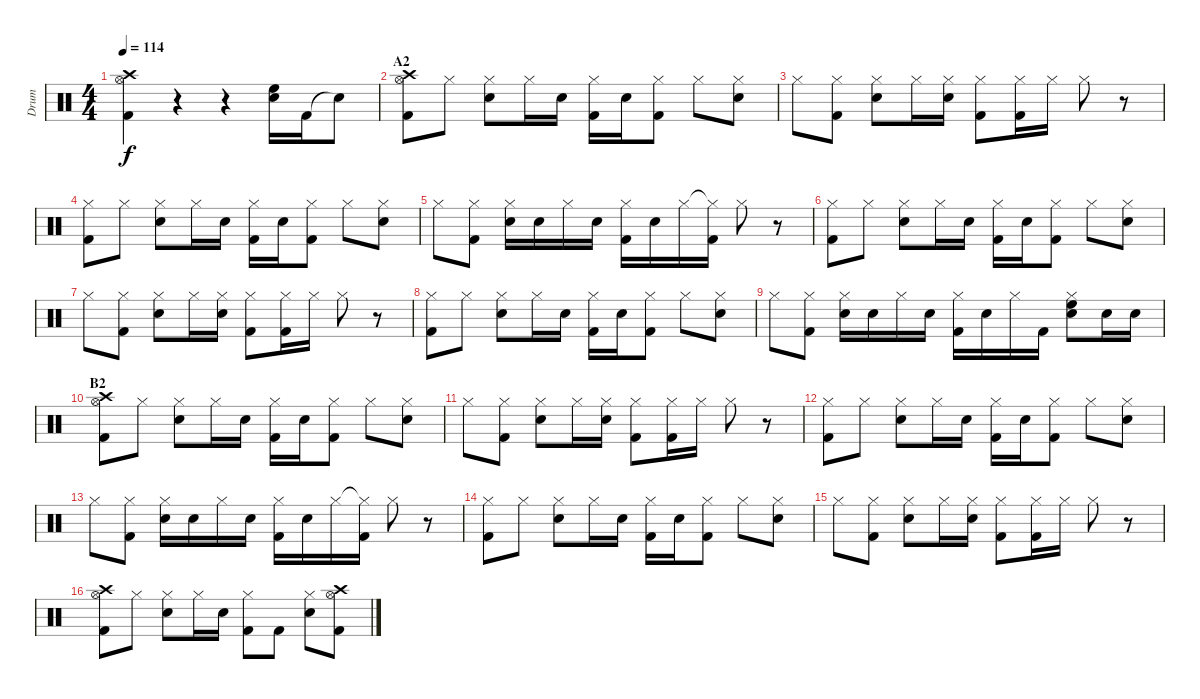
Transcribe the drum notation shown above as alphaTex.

\track ("Drum" "Drum") {instrument percussion}
\staff {score}
\articulation defaults
\ts (4 4)
\tempo 114
\clef neutral
\ks c
("Crash high (hit)" "Hi-Hat (open)" "Kick (hit) 2").4{dy f} r.4 r.4 ("High Floor Tom (hit)" "Snare (hit) 2").16 "Kick (hit) 2".16 "Snare (hit)"{t}.8 |
\section ("" "A2")
("Crash high (hit)" "Hi-Hat (open)" "Kick (hit) 2").8 "Hi-Hat (closed)".8 ("Hi-Hat (closed)" "Snare (hit) 2").8 "Hi-Hat (closed)".16 "Snare (hit) 2".16 ("Hi-Hat (closed)" "Kick (hit) 2").16 "Snare (hit) 2".16 ("Hi-Hat (closed)" "Kick (hit) 2").8 "Hi-Hat (closed)".8 ("Hi-Hat (closed)" "Snare (hit) 2").8 |
"Hi-Hat (closed)".8 ("Hi-Hat (closed)" "Kick (hit) 2").8 ("Hi-Hat (closed)" "Snare (hit) 2").8 "Hi-Hat (closed)".16 ("Hi-Hat (closed)" "Snare (hit) 2").16 ("Hi-Hat (closed)" "Kick (hit) 2").8 ("Hi-Hat (closed)" "Kick (hit) 2").16 "Hi-Hat (closed)".16 "Hi-Hat (closed)".8 r.8 |
("Hi-Hat (closed)" "Kick (hit) 2").8 "Hi-Hat (closed)".8 ("Hi-Hat (closed)" "Snare (hit) 2").8 "Hi-Hat (closed)".16 "Snare (hit) 2".16 ("Hi-Hat (closed)" "Kick (hit) 2").16 "Snare (hit) 2".16 ("Hi-Hat (closed)" "Kick (hit) 2").8 "Hi-Hat (closed)".8 ("Hi-Hat (closed)" "Snare (hit) 2").8 |
"Hi-Hat (closed)".8 ("Hi-Hat (closed)" "Kick (hit) 2").8 ("Hi-Hat (closed)" "Snare (hit) 2").16 "Snare (hit) 2".16 "Hi-Hat (closed)".16 "Snare (hit) 2".16 ("Hi-Hat (closed)" "Kick (hit) 2").16 "Snare (hit) 2".16 "Hi-Hat (closed)".16 ("Hi-Hat (closed)"{t} "Kick (hit) 2").16 "Hi-Hat (closed)".8 r.8 |
("Hi-Hat (closed)" "Kick (hit) 2").8 "Hi-Hat (closed)".8 ("Hi-Hat (closed)" "Snare (hit) 2").8 "Hi-Hat (closed)".16 "Snare (hit) 2".16 ("Hi-Hat (closed)" "Kick (hit) 2").16 "Snare (hit) 2".16 ("Hi-Hat (closed)" "Kick (hit) 2").8 "Hi-Hat (closed)".8 ("Hi-Hat (closed)" "Snare (hit) 2").8 |
"Hi-Hat (closed)".8 ("Hi-Hat (closed)" "Kick (hit) 2").8 ("Hi-Hat (closed)" "Snare (hit) 2").8 "Hi-Hat (closed)".16 ("Hi-Hat (closed)" "Snare (hit) 2").16 ("Hi-Hat (closed)" "Kick (hit) 2").8 ("Hi-Hat (closed)" "Kick (hit) 2").16 "Hi-Hat (closed)".16 "Hi-Hat (closed)".8 r.8 |
("Hi-Hat (closed)" "Kick (hit) 2").8 "Hi-Hat (closed)".8 ("Hi-Hat (closed)" "Snare (hit) 2").8 "Hi-Hat (closed)".16 "Snare (hit) 2".16 ("Hi-Hat (closed)" "Kick (hit) 2").16 "Snare (hit) 2".16 ("Hi-Hat (closed)" "Kick (hit) 2").8 "Hi-Hat (closed)".8 ("Hi-Hat (closed)" "Snare (hit) 2").8 |
"Hi-Hat (closed)".8 ("Hi-Hat (closed)" "Kick (hit) 2").8 ("Hi-Hat (closed)" "Snare (hit) 2").16 "Snare (hit) 2".16 "Hi-Hat (closed)".16 "Snare (hit) 2".16 ("Hi-Hat (closed)" "Kick (hit) 2").16 "Snare (hit) 2".16 "Hi-Hat (closed)".16 "Kick (hit) 2".16 ("Hi-Hat (closed)" "High Floor Tom (hit)" "Snare (hit) 2").8 "Snare (hit) 2".16 "Snare (hit) 2".16 |
\section ("" "B2")
("Crash high (hit)" "Hi-Hat (open)" "Kick (hit) 2").8 "Hi-Hat (closed)".8 ("Hi-Hat (closed)" "Snare (hit) 2").8 "Hi-Hat (closed)".16 "Snare (hit) 2".16 ("Hi-Hat (closed)" "Kick (hit) 2").16 "Snare (hit) 2".16 ("Hi-Hat (closed)" "Kick (hit) 2").8 "Hi-Hat (closed)".8 ("Hi-Hat (closed)" "Snare (hit) 2").8 |
"Hi-Hat (closed)".8 ("Hi-Hat (closed)" "Kick (hit) 2").8 ("Hi-Hat (closed)" "Snare (hit) 2").8 "Hi-Hat (closed)".16 ("Hi-Hat (closed)" "Snare (hit) 2").16 ("Hi-Hat (closed)" "Kick (hit) 2").8 ("Hi-Hat (closed)" "Kick (hit) 2").16 "Hi-Hat (closed)".16 "Hi-Hat (closed)".8 r.8 |
("Hi-Hat (closed)" "Kick (hit) 2").8 "Hi-Hat (closed)".8 ("Hi-Hat (closed)" "Snare (hit) 2").8 "Hi-Hat (closed)".16 "Snare (hit) 2".16 ("Hi-Hat (closed)" "Kick (hit) 2").16 "Snare (hit) 2".16 ("Hi-Hat (closed)" "Kick (hit) 2").8 "Hi-Hat (closed)".8 ("Hi-Hat (closed)" "Snare (hit) 2").8 |
"Hi-Hat (closed)".8 ("Hi-Hat (closed)" "Kick (hit) 2").8 ("Hi-Hat (closed)" "Snare (hit) 2").16 "Snare (hit) 2".16 "Hi-Hat (closed)".16 "Snare (hit) 2".16 ("Hi-Hat (closed)" "Kick (hit) 2").16 "Snare (hit) 2".16 "Hi-Hat (closed)".16 ("Hi-Hat (closed)"{t} "Kick (hit) 2").16 "Hi-Hat (closed)".8 r.8 |
("Hi-Hat (closed)" "Kick (hit) 2").8 "Hi-Hat (closed)".8 ("Hi-Hat (closed)" "Snare (hit) 2").8 "Hi-Hat (closed)".16 "Snare (hit) 2".16 ("Hi-Hat (closed)" "Kick (hit) 2").16 "Snare (hit) 2".16 ("Hi-Hat (closed)" "Kick (hit) 2").8 "Hi-Hat (closed)".8 ("Hi-Hat (closed)" "Snare (hit) 2").8 |
"Hi-Hat (closed)".8 ("Hi-Hat (closed)" "Kick (hit) 2").8 ("Hi-Hat (closed)" "Snare (hit) 2").8 "Hi-Hat (closed)".16 ("Hi-Hat (closed)" "Snare (hit) 2").16 ("Hi-Hat (closed)" "Kick (hit) 2").8 ("Hi-Hat (closed)" "Kick (hit) 2").16 "Hi-Hat (closed)".16 "Hi-Hat (closed)".8 r.8 |
("Crash high (hit)" "Hi-Hat (open)" "Kick (hit) 2").8 "Hi-Hat (closed)".8 ("Hi-Hat (closed)" "Snare (hit) 2").8 "Hi-Hat (closed)".16 "Snare (hit) 2".16 ("Hi-Hat (closed)" "Kick (hit) 2").8 "Kick (hit) 2".8 ("Hi-Hat (closed)" "Snare (hit) 2").8 ("Crash high (hit)" "Hi-Hat (open)" "Kick (hit) 2").8
